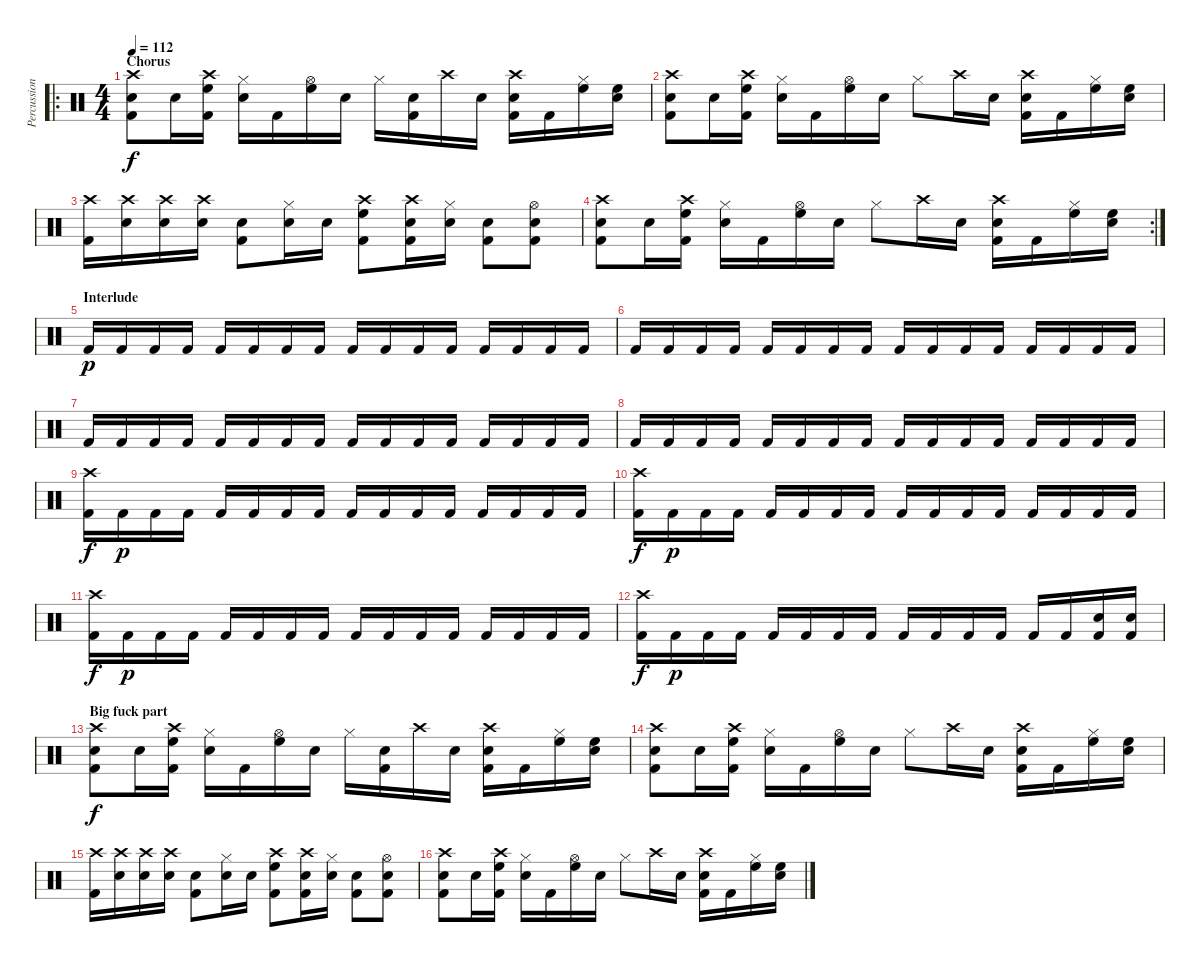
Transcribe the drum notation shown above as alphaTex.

\track ("Percussion" "Percussion") {instrument percussion}
\staff {score}
\articulation defaults
\ro
\ts (4 4)
\section ("" "Chorus")
\tempo 112
\clef neutral
\ks c
("Crash high (hit)" "Snare (hit) 2" "Kick (hit) 2").8{dy f} "Snare (hit) 2".16 ("Crash high (hit)" "High Floor Tom (hit)" "Kick (hit) 2").16 ("Hi-Hat (closed)" "Snare (hit) 2").16 "Kick (hit) 2".16 ("Hi-Hat (open)" "High Floor Tom (hit)").16 "Snare (hit) 2".16 "Hi-Hat (closed)".16 ("Snare (hit) 2" "Kick (hit) 2").16 "Crash high (hit)".16 "Snare (hit) 2".16 ("Crash high (hit)" "Snare (hit) 2" "Kick (hit) 2").16 "Kick (hit) 2".16 ("Hi-Hat (closed)" "High Floor Tom (hit)").16 ("Snare (hit) 2" "High Floor Tom (hit)").16 |
("Crash high (hit)" "Snare (hit) 2" "Kick (hit) 2").8 "Snare (hit) 2".16 ("Crash high (hit)" "High Floor Tom (hit)" "Kick (hit) 2").16 ("Hi-Hat (closed)" "Snare (hit) 2").16 "Kick (hit) 2".16 ("Hi-Hat (open)" "High Floor Tom (hit)").16 "Snare (hit) 2".16 "Hi-Hat (closed)".8 "Crash high (hit)".16 "Snare (hit) 2".16 ("Crash high (hit)" "Snare (hit) 2" "Kick (hit) 2").16 "Kick (hit) 2".16 ("Hi-Hat (closed)" "High Floor Tom (hit)").16 ("Snare (hit) 2" "High Floor Tom (hit)").16 |
("Crash high (hit)" "Kick (hit) 2").16 ("Crash high (hit)" "Snare (hit) 2").16 ("Crash high (hit)" "Snare (hit) 2").16 ("Crash high (hit)" "Snare (hit) 2").16 ("Snare (hit) 2" "Kick (hit) 2").8 ("Hi-Hat (closed)" "Snare (hit) 2").16 "Snare (hit) 2".16 ("Crash high (hit)" "High Floor Tom (hit)" "Kick (hit) 2").8 ("Crash high (hit)" "Snare (hit) 2" "Kick (hit) 2").16 ("Hi-Hat (closed)" "Snare (hit) 2").16 ("Snare (hit) 2" "Kick (hit) 2").8 ("Hi-Hat (open)" "Snare (hit) 2" "Kick (hit) 2").8 |
\rc 2
("Crash high (hit)" "Snare (hit) 2" "Kick (hit) 2").8 "Snare (hit) 2".16 ("Crash high (hit)" "High Floor Tom (hit)" "Kick (hit) 2").16 ("Hi-Hat (closed)" "Snare (hit) 2").16 "Kick (hit) 2".16 ("Hi-Hat (open)" "High Floor Tom (hit)").16 "Snare (hit) 2".16 "Hi-Hat (closed)".8 "Crash high (hit)".16 "Snare (hit) 2".16 ("Crash high (hit)" "Snare (hit) 2" "Kick (hit) 2").16 "Kick (hit) 2".16 ("Hi-Hat (closed)" "High Floor Tom (hit)").16 ("Snare (hit) 2" "High Floor Tom (hit)").16 |
\section ("" "Interlude")
"Kick (hit) 2".16{dy p} "Kick (hit) 2".16 "Kick (hit) 2".16 "Kick (hit) 2".16 "Kick (hit) 2".16 "Kick (hit) 2".16 "Kick (hit) 2".16 "Kick (hit) 2".16 "Kick (hit) 2".16 "Kick (hit) 2".16 "Kick (hit) 2".16 "Kick (hit) 2".16 "Kick (hit) 2".16 "Kick (hit) 2".16 "Kick (hit) 2".16 "Kick (hit) 2".16 |
"Kick (hit) 2".16 "Kick (hit) 2".16 "Kick (hit) 2".16 "Kick (hit) 2".16 "Kick (hit) 2".16 "Kick (hit) 2".16 "Kick (hit) 2".16 "Kick (hit) 2".16 "Kick (hit) 2".16 "Kick (hit) 2".16 "Kick (hit) 2".16 "Kick (hit) 2".16 "Kick (hit) 2".16 "Kick (hit) 2".16 "Kick (hit) 2".16 "Kick (hit) 2".16 |
"Kick (hit) 2".16 "Kick (hit) 2".16 "Kick (hit) 2".16 "Kick (hit) 2".16 "Kick (hit) 2".16 "Kick (hit) 2".16 "Kick (hit) 2".16 "Kick (hit) 2".16 "Kick (hit) 2".16 "Kick (hit) 2".16 "Kick (hit) 2".16 "Kick (hit) 2".16 "Kick (hit) 2".16 "Kick (hit) 2".16 "Kick (hit) 2".16 "Kick (hit) 2".16 |
"Kick (hit) 2".16 "Kick (hit) 2".16 "Kick (hit) 2".16 "Kick (hit) 2".16 "Kick (hit) 2".16 "Kick (hit) 2".16 "Kick (hit) 2".16 "Kick (hit) 2".16 "Kick (hit) 2".16 "Kick (hit) 2".16 "Kick (hit) 2".16 "Kick (hit) 2".16 "Kick (hit) 2".16 "Kick (hit) 2".16 "Kick (hit) 2".16 "Kick (hit) 2".16 |
("Crash high (hit)" "Kick (hit) 2").16{dy f} "Kick (hit) 2".16{dy p} "Kick (hit) 2".16 "Kick (hit) 2".16 "Kick (hit) 2".16 "Kick (hit) 2".16 "Kick (hit) 2".16 "Kick (hit) 2".16 "Kick (hit) 2".16 "Kick (hit) 2".16 "Kick (hit) 2".16 "Kick (hit) 2".16 "Kick (hit) 2".16 "Kick (hit) 2".16 "Kick (hit) 2".16 "Kick (hit) 2".16 |
("Crash high (hit)" "Kick (hit) 2").16{dy f} "Kick (hit) 2".16{dy p} "Kick (hit) 2".16 "Kick (hit) 2".16 "Kick (hit) 2".16 "Kick (hit) 2".16 "Kick (hit) 2".16 "Kick (hit) 2".16 "Kick (hit) 2".16 "Kick (hit) 2".16 "Kick (hit) 2".16 "Kick (hit) 2".16 "Kick (hit) 2".16 "Kick (hit) 2".16 "Kick (hit) 2".16 "Kick (hit) 2".16 |
("Crash high (hit)" "Kick (hit) 2").16{dy f} "Kick (hit) 2".16{dy p} "Kick (hit) 2".16 "Kick (hit) 2".16 "Kick (hit) 2".16 "Kick (hit) 2".16 "Kick (hit) 2".16 "Kick (hit) 2".16 "Kick (hit) 2".16 "Kick (hit) 2".16 "Kick (hit) 2".16 "Kick (hit) 2".16 "Kick (hit) 2".16 "Kick (hit) 2".16 "Kick (hit) 2".16 "Kick (hit) 2".16 |
("Crash high (hit)" "Kick (hit) 2").16{dy f} "Kick (hit) 2".16{dy p} "Kick (hit) 2".16 "Kick (hit) 2".16 "Kick (hit) 2".16 "Kick (hit) 2".16 "Kick (hit) 2".16 "Kick (hit) 2".16 "Kick (hit) 2".16 "Kick (hit) 2".16 "Kick (hit) 2".16 "Kick (hit) 2".16 "Kick (hit) 2".16 "Kick (hit) 2".16 ("Snare (hit) 2" "Kick (hit) 2").16 ("Snare (hit) 2" "Kick (hit) 2").16 |
\section ("" "Big fuck part")
("Crash high (hit)" "Snare (hit) 2" "Kick (hit) 2").8{dy f} "Snare (hit) 2".16 ("Crash high (hit)" "High Floor Tom (hit)" "Kick (hit) 2").16 ("Hi-Hat (closed)" "Snare (hit) 2").16 "Kick (hit) 2".16 ("Hi-Hat (open)" "High Floor Tom (hit)").16 "Snare (hit) 2".16 "Hi-Hat (closed)".16 ("Snare (hit) 2" "Kick (hit) 2").16 "Crash high (hit)".16 "Snare (hit) 2".16 ("Crash high (hit)" "Snare (hit) 2" "Kick (hit) 2").16 "Kick (hit) 2".16 ("Hi-Hat (closed)" "High Floor Tom (hit)").16 ("Snare (hit) 2" "High Floor Tom (hit)").16 |
("Crash high (hit)" "Snare (hit) 2" "Kick (hit) 2").8 "Snare (hit) 2".16 ("Crash high (hit)" "High Floor Tom (hit)" "Kick (hit) 2").16 ("Hi-Hat (closed)" "Snare (hit) 2").16 "Kick (hit) 2".16 ("Hi-Hat (open)" "High Floor Tom (hit)").16 "Snare (hit) 2".16 "Hi-Hat (closed)".8 "Crash high (hit)".16 "Snare (hit) 2".16 ("Crash high (hit)" "Snare (hit) 2" "Kick (hit) 2").16 "Kick (hit) 2".16 ("Hi-Hat (closed)" "High Floor Tom (hit)").16 ("Snare (hit) 2" "High Floor Tom (hit)").16 |
("Crash high (hit)" "Kick (hit) 2").16 ("Crash high (hit)" "Snare (hit) 2").16 ("Crash high (hit)" "Snare (hit) 2").16 ("Crash high (hit)" "Snare (hit) 2").16 ("Snare (hit) 2" "Kick (hit) 2").8 ("Hi-Hat (closed)" "Snare (hit) 2").16 "Snare (hit) 2".16 ("Crash high (hit)" "High Floor Tom (hit)" "Kick (hit) 2").8 ("Crash high (hit)" "Snare (hit) 2" "Kick (hit) 2").16 ("Hi-Hat (closed)" "Snare (hit) 2").16 ("Snare (hit) 2" "Kick (hit) 2").8 ("Hi-Hat (open)" "Snare (hit) 2" "Kick (hit) 2").8 |
("Crash high (hit)" "Snare (hit) 2" "Kick (hit) 2").8 "Snare (hit) 2".16 ("Crash high (hit)" "High Floor Tom (hit)" "Kick (hit) 2").16 ("Hi-Hat (closed)" "Snare (hit) 2").16 "Kick (hit) 2".16 ("Hi-Hat (open)" "High Floor Tom (hit)").16 "Snare (hit) 2".16 "Hi-Hat (closed)".8 "Crash high (hit)".16 "Snare (hit) 2".16 ("Crash high (hit)" "Snare (hit) 2" "Kick (hit) 2").16 "Kick (hit) 2".16 ("Hi-Hat (closed)" "High Floor Tom (hit)").16 ("Snare (hit) 2" "High Floor Tom (hit)").16
